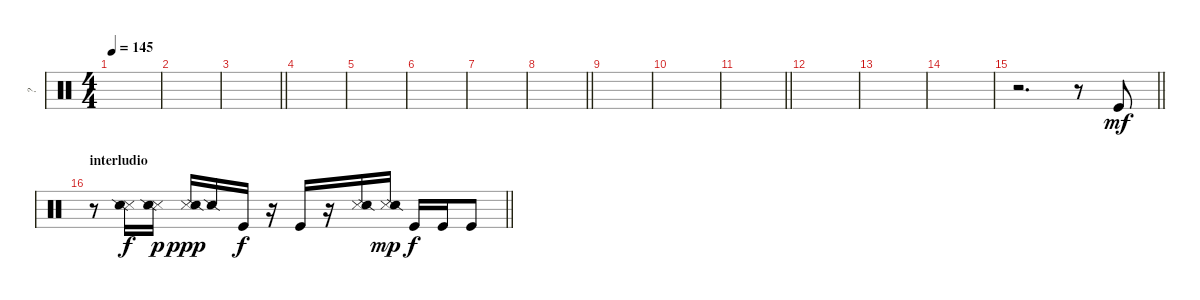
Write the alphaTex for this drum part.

\track ("?" "?") {instrument percussion}
\staff {score}
\articulation defaults
\ts (4 4)
\section ("" "")
\tempo 145
\clef neutral
\ks c
|
|
\barLineRight lightlight
|
|
|
|
|
\barLineRight lightlight
|
|
|
\barLineRight lightlight
|
|
|
|
\barLineRight lightlight
r.2{d} r.8 "Kick (hit)".8{dy mf} |
\section ("" "interludio")
\barLineRight lightlight
r.8 ("Snare (side stick) 3" "Snare (side stick) 2").16{dy f} ("Snare (side stick) 3" "Snare (side stick) 2").16{dy p} ("Snare (side stick) 3" "Snare (side stick) 2").16{dy ppp} "Snare (side stick) 2".16 "Kick (hit)".16{dy f} r.16 "Kick (hit)".16 r.16 ("Snare (side stick) 3" "Snare (side stick) 2").16 ("Snare (side stick) 3" "Snare (side stick) 2").16{dy mp} "Kick (hit)".16{dy f} "Kick (hit)".16 "Kick (hit)".8
